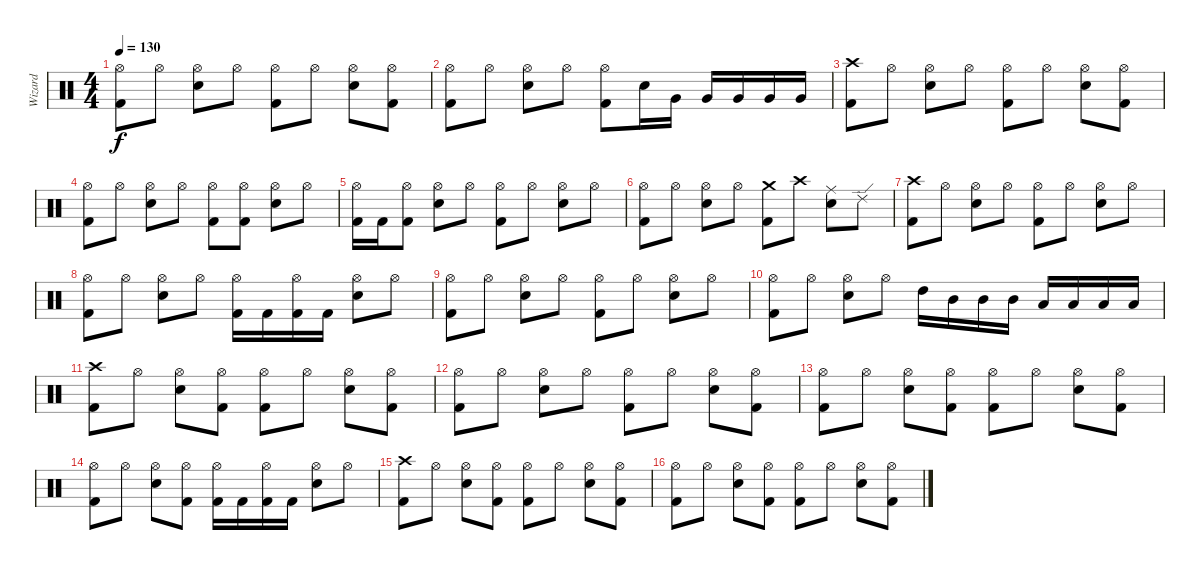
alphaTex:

\track ("Wizard" "Wizard") {instrument percussion}
\staff {score}
\articulation defaults
\ts (4 4)
\tempo 130
\clef neutral
\ks c
("Hi-Hat (open)" "Kick (hit) 2").8{dy f} "Hi-Hat (open)".8 ("Hi-Hat (open)" "Snare (hit) 2").8 "Hi-Hat (open)".8 ("Hi-Hat (open)" "Kick (hit) 2").8 "Hi-Hat (open)".8 ("Hi-Hat (open)" "Snare (hit) 2").8 ("Hi-Hat (open)" "Kick (hit) 2").8 |
("Hi-Hat (open)" "Kick (hit) 2").8 "Hi-Hat (open)".8 ("Hi-Hat (open)" "Snare (hit) 2").8 "Hi-Hat (open)".8 ("Hi-Hat (open)" "Kick (hit) 2").8 "Snare (hit) 2".16 "Very Low Tom (hit)".16 "Very Low Tom (hit)".16 "Very Low Tom (hit)".16 "Very Low Tom (hit)".16 "Very Low Tom (hit)".16 |
("Crash high (hit)" "Kick (hit) 2").8 "Hi-Hat (open)".8 ("Hi-Hat (open)" "Snare (hit) 2").8 "Hi-Hat (open)".8 ("Hi-Hat (open)" "Kick (hit) 2").8 "Hi-Hat (open)".8 ("Hi-Hat (open)" "Snare (hit) 2").8 ("Hi-Hat (open)" "Kick (hit) 2").8 |
("Hi-Hat (open)" "Kick (hit) 2").8 "Hi-Hat (open)".8 ("Hi-Hat (open)" "Snare (hit) 2").8 "Hi-Hat (open)".8 ("Hi-Hat (open)" "Kick (hit) 2").8 ("Hi-Hat (open)" "Kick (hit) 2").8 ("Hi-Hat (open)" "Snare (hit) 2").8 "Hi-Hat (open)".8 |
("Hi-Hat (open)" "Kick (hit) 2").16 "Kick (hit) 2".16 ("Hi-Hat (open)" "Kick (hit) 2").8 ("Hi-Hat (open)" "Snare (hit) 2").8 "Hi-Hat (open)".8 ("Hi-Hat (open)" "Kick (hit) 2").8 "Hi-Hat (open)".8 ("Hi-Hat (open)" "Snare (hit) 2").8 "Hi-Hat (open)".8 |
("Hi-Hat (open)" "Kick (hit) 2").8 "Hi-Hat (open)".8 ("Hi-Hat (open)" "Snare (hit) 2").8 "Hi-Hat (open)".8 ("Crash medium (hit)" "Kick (hit) 2").8 "Crash high (hit)".8 ("Ride (middle)" "Snare (hit) 2").8 "Ride (edge) 2".8 |
("Crash high (hit)" "Kick (hit) 2").8 "Hi-Hat (open)".8 ("Hi-Hat (open)" "Snare (hit) 2").8 "Hi-Hat (open)".8 ("Hi-Hat (open)" "Kick (hit) 2").8 "Hi-Hat (open)".8 ("Hi-Hat (open)" "Snare (hit) 2").8 "Hi-Hat (open)".8 |
("Hi-Hat (open)" "Kick (hit) 2").8 "Hi-Hat (open)".8 ("Hi-Hat (open)" "Snare (hit) 2").8 "Hi-Hat (open)".8 ("Hi-Hat (open)" "Kick (hit) 2").16 "Kick (hit) 2".16 ("Hi-Hat (open)" "Kick (hit) 2").16 "Kick (hit) 2".16 ("Hi-Hat (open)" "Snare (hit) 2").8 "Hi-Hat (open)".8 |
("Hi-Hat (open)" "Kick (hit) 2").8 "Hi-Hat (open)".8 ("Hi-Hat (open)" "Snare (hit) 2").8 "Hi-Hat (open)".8 ("Hi-Hat (open)" "Kick (hit) 2").8 "Hi-Hat (open)".8 ("Hi-Hat (open)" "Snare (hit) 2").8 "Hi-Hat (open)".8 |
("Hi-Hat (open)" "Kick (hit) 2").8 "Hi-Hat (open)".8 ("Hi-Hat (open)" "Snare (hit) 2").8 "Hi-Hat (open)".8 "High Tom (hit)".16 "Mid Tom (hit)".16 "Mid Tom (hit)".16 "Mid Tom (hit)".16 "Low Tom (hit)".16 "Low Tom (hit)".16 "Low Tom (hit)".16 "Low Tom (hit)".16 |
("Crash high (hit)" "Kick (hit) 2").8 "Hi-Hat (open)".8 ("Hi-Hat (open)" "Snare (hit) 2").8 ("Hi-Hat (open)" "Kick (hit) 2").8 ("Hi-Hat (open)" "Kick (hit) 2").8 "Hi-Hat (open)".8 ("Hi-Hat (open)" "Snare (hit) 2").8 ("Hi-Hat (open)" "Kick (hit) 2").8 |
("Hi-Hat (open)" "Kick (hit) 2").8 "Hi-Hat (open)".8 ("Hi-Hat (open)" "Snare (hit) 2").8 "Hi-Hat (open)".8 ("Hi-Hat (open)" "Kick (hit) 2").8 "Hi-Hat (open)".8 ("Hi-Hat (open)" "Snare (hit) 2").8 ("Hi-Hat (open)" "Kick (hit) 2").8 |
("Hi-Hat (open)" "Kick (hit) 2").8 "Hi-Hat (open)".8 ("Hi-Hat (open)" "Snare (hit) 2").8 ("Hi-Hat (open)" "Kick (hit) 2").8 ("Hi-Hat (open)" "Kick (hit) 2").8 "Hi-Hat (open)".8 ("Hi-Hat (open)" "Snare (hit) 2").8 ("Hi-Hat (open)" "Kick (hit) 2").8 |
("Hi-Hat (open)" "Kick (hit) 2").8 "Hi-Hat (open)".8 ("Hi-Hat (open)" "Snare (hit) 2").8 ("Hi-Hat (open)" "Kick (hit) 2").8 ("Hi-Hat (open)" "Kick (hit) 2").16 "Kick (hit) 2".16 ("Hi-Hat (open)" "Kick (hit) 2").16 "Kick (hit) 2".16 ("Hi-Hat (open)" "Snare (hit) 2").8 "Hi-Hat (open)".8 |
("Crash high (hit)" "Kick (hit) 2").8 "Hi-Hat (open)".8 ("Hi-Hat (open)" "Snare (hit) 2").8 ("Hi-Hat (open)" "Kick (hit) 2").8 ("Hi-Hat (open)" "Kick (hit) 2").8 "Hi-Hat (open)".8 ("Hi-Hat (open)" "Snare (hit) 2").8 ("Hi-Hat (open)" "Kick (hit) 2").8 |
("Hi-Hat (open)" "Kick (hit) 2").8 "Hi-Hat (open)".8 ("Hi-Hat (open)" "Snare (hit) 2").8 ("Hi-Hat (open)" "Kick (hit) 2").8 ("Hi-Hat (open)" "Kick (hit) 2").8 "Hi-Hat (open)".8 ("Hi-Hat (open)" "Snare (hit) 2").8 ("Hi-Hat (open)" "Kick (hit) 2").8
